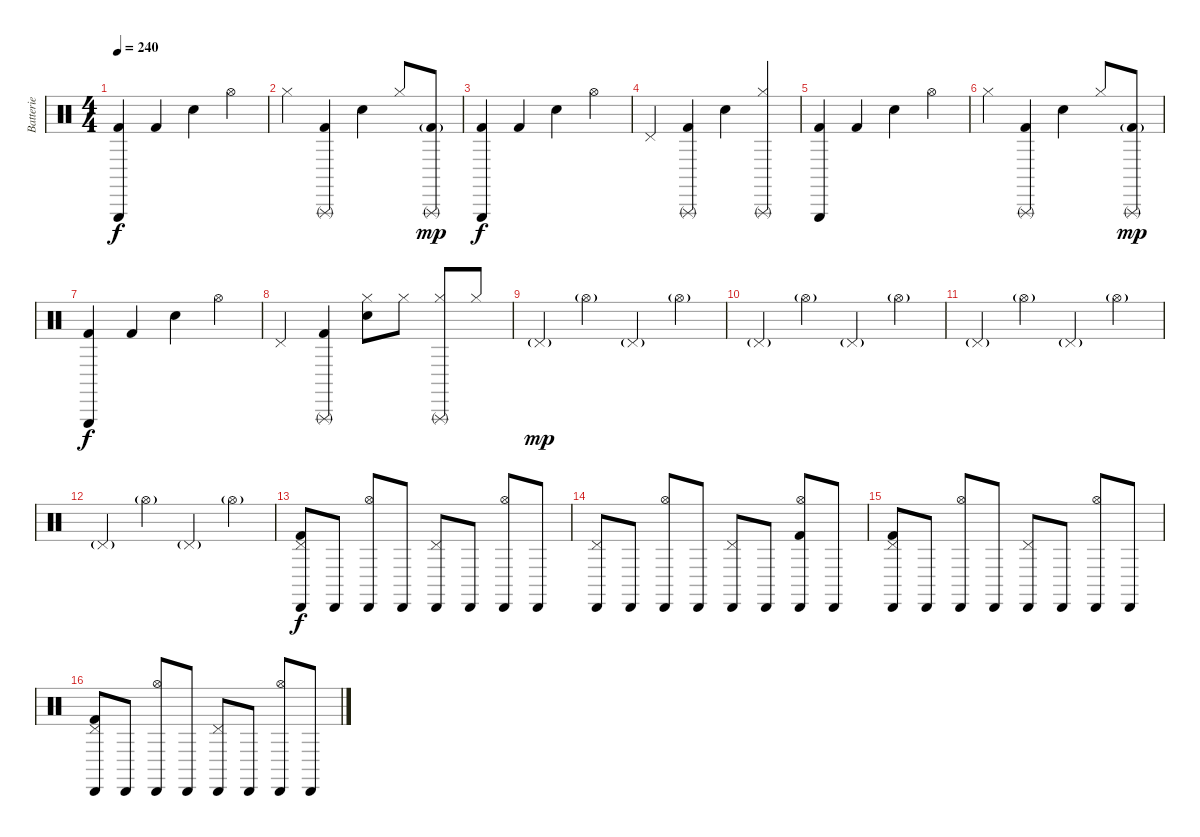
\track ("Batterie" "Batterie") {instrument percussion}
\staff {score}
\articulation defaults
\ts (4 4)
\section ("" "")
\tempo 240
\clef neutral
\ks c
("Triangle (hit)" "Kick (hit) 2").4{dy f} "Kick (hit) 2".4 "Snare (hit) 2".4 "Hi-Hat (open)".4 |
"Hi-Hat (closed)".4 ("Triangle (rnute)" "Kick (hit) 2").4 "Snare (hit) 2".4 "Hi-Hat (closed)".8 ("Triangle (rnute)" "Kick (hit) 2"{g}).8{dy mp} |
("Triangle (hit)" "Kick (hit) 2").4{dy f} "Kick (hit) 2".4 "Snare (hit) 2".4 "Hi-Hat (open)".4 |
"Pedal Hi-Hat (hit)".4 ("Triangle (rnute)" "Kick (hit) 2").4 "Snare (hit) 2".4 ("Hi-Hat (closed)" "Triangle (rnute)").4 |
("Triangle (hit)" "Kick (hit) 2").4 "Kick (hit) 2".4 "Snare (hit) 2".4 "Hi-Hat (open)".4 |
"Hi-Hat (closed)".4 ("Triangle (rnute)" "Kick (hit) 2").4 "Snare (hit) 2".4 "Hi-Hat (closed)".8 ("Triangle (rnute)" "Kick (hit) 2"{g}).8{dy mp} |
("Triangle (hit)" "Kick (hit) 2").4{dy f} "Kick (hit) 2".4 "Snare (hit) 2".4 "Hi-Hat (open)".4 |
"Pedal Hi-Hat (hit)".4 ("Triangle (rnute)" "Kick (hit) 2").4 ("Hi-Hat (closed)" "Snare (hit) 2").8 "Hi-Hat (closed)".8 ("Hi-Hat (closed)" "Triangle (rnute)").8 "Hi-Hat (closed)".8 |
"Pedal Hi-Hat (hit)"{g}.4{dy mp} "Hi-Hat (open)"{g}.4 "Pedal Hi-Hat (hit)"{g}.4 "Hi-Hat (open)"{g}.4 |
"Pedal Hi-Hat (hit)"{g}.4 "Hi-Hat (open)"{g}.4 "Pedal Hi-Hat (hit)"{g}.4 "Hi-Hat (open)"{g}.4 |
"Pedal Hi-Hat (hit)"{g}.4 "Hi-Hat (open)"{g}.4 "Pedal Hi-Hat (hit)"{g}.4 "Hi-Hat (open)"{g}.4 |
"Pedal Hi-Hat (hit)"{g}.4 "Hi-Hat (open)"{g}.4 "Pedal Hi-Hat (hit)"{g}.4 "Hi-Hat (open)"{g}.4 |
("Pedal Hi-Hat (hit)" "Cabasa (hit)" "Kick (hit) 2").8{dy f volume 8} "Cabasa (hit)".8 ("Hi-Hat (open)" "Cabasa (hit)").8 "Cabasa (hit)".8 ("Pedal Hi-Hat (hit)" "Cabasa (hit)").8 "Cabasa (hit)".8 ("Hi-Hat (open)" "Cabasa (hit)").8 "Cabasa (hit)".8 |
("Pedal Hi-Hat (hit)" "Cabasa (hit)").8 "Cabasa (hit)".8 ("Hi-Hat (open)" "Cabasa (hit)").8 "Cabasa (hit)".8 ("Pedal Hi-Hat (hit)" "Cabasa (hit)").8 "Cabasa (hit)".8 ("Hi-Hat (open)" "Cabasa (hit)" "Kick (hit) 2").8 "Cabasa (hit)".8 |
("Pedal Hi-Hat (hit)" "Cabasa (hit)" "Kick (hit) 2").8 "Cabasa (hit)".8 ("Hi-Hat (open)" "Cabasa (hit)").8 "Cabasa (hit)".8 ("Pedal Hi-Hat (hit)" "Cabasa (hit)").8 "Cabasa (hit)".8 ("Hi-Hat (open)" "Cabasa (hit)").8 "Cabasa (hit)".8 |
("Pedal Hi-Hat (hit)" "Cabasa (hit)" "Kick (hit) 2").8 "Cabasa (hit)".8 ("Hi-Hat (open)" "Cabasa (hit)").8 "Cabasa (hit)".8 ("Pedal Hi-Hat (hit)" "Cabasa (hit)").8 "Cabasa (hit)".8 ("Hi-Hat (open)" "Cabasa (hit)").8 "Cabasa (hit)".8
